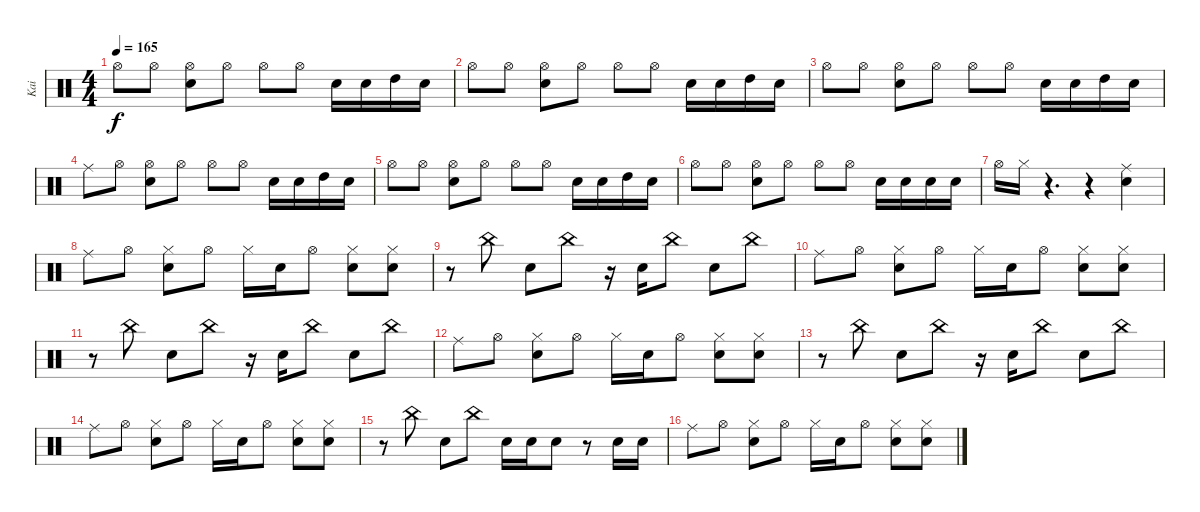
\track ("Kai" "Kai") {instrument percussion}
\staff {score}
\articulation defaults
\ts (4 4)
\tempo 165
\clef neutral
\ks c "Hi-Hat (open)".8{dy f} "Hi-Hat (open)".8
("Hi-Hat (open)" "Snare (hit) 2").8 "Hi-Hat (open)".8 "Hi-Hat (open)".8 "Hi-Hat (open)".8 "Snare (hit) 2".16 "Snare (hit) 2".16 "High Tom (hit)".16 "Snare (hit) 2".16 |
"Hi-Hat (open)".8 "Hi-Hat (open)".8 ("Hi-Hat (open)" "Snare (hit) 2").8 "Hi-Hat (open)".8 "Hi-Hat (open)".8 "Hi-Hat (open)".8 "Snare (hit) 2".16 "Snare (hit) 2".16 "High Tom (hit)".16 "Snare (hit) 2".16 |
"Hi-Hat (open)".8 "Hi-Hat (open)".8 ("Hi-Hat (open)" "Snare (hit) 2").8 "Hi-Hat (open)".8 "Hi-Hat (open)".8 "Hi-Hat (open)".8 "Snare (hit) 2".16 "Snare (hit) 2".16 "High Tom (hit)".16 "Snare (hit) 2".16 |
"Ride (middle)".8 "Hi-Hat (open)".8 ("Hi-Hat (open)" "Snare (hit) 2").8 "Hi-Hat (open)".8 "Hi-Hat (open)".8 "Hi-Hat (open)".8 "Snare (hit) 2".16 "Snare (hit) 2".16 "High Tom (hit)".16 "Snare (hit) 2".16 |
"Hi-Hat (open)".8 "Hi-Hat (open)".8 ("Hi-Hat (open)" "Snare (hit) 2").8 "Hi-Hat (open)".8 "Hi-Hat (open)".8 "Hi-Hat (open)".8 "Snare (hit) 2".16 "Snare (hit) 2".16 "High Tom (hit)".16 "Snare (hit) 2".16 |
"Hi-Hat (open)".8 "Hi-Hat (open)".8 ("Hi-Hat (open)" "Snare (hit) 2").8 "Hi-Hat (open)".8 "Hi-Hat (open)".8 "Hi-Hat (open)".8 "Snare (hit) 2".16 "Snare (hit) 2".16 "Snare (hit) 2".16 "Snare (hit) 2".16 |
"Hi-Hat (open)".16 "Hi-Hat (closed)".16 r.4{d} r.4 ("Ride (middle)" "Snare (hit) 2").4 |
"Ride (middle)".8 "Hi-Hat (open)".8 ("Hi-Hat (closed)" "Snare (hit) 2").8 "Hi-Hat (open)".8 "Hi-Hat (closed)".16 "Snare (hit) 2".16 "Hi-Hat (open)".8 ("Hi-Hat (closed)" "Snare (hit) 2").8 ("Hi-Hat (closed)" "Snare (hit) 2").8 |
r.8 "China (hit)".8 "Snare (hit) 2".8 "China (hit)".8 r.16 "Snare (hit) 2".16 "China (hit)".8 "Snare (hit) 2".8 "China (hit)".8 |
"Ride (middle)".8 "Hi-Hat (open)".8 ("Hi-Hat (closed)" "Snare (hit) 2").8 "Hi-Hat (open)".8 "Hi-Hat (closed)".16 "Snare (hit) 2".16 "Hi-Hat (open)".8 ("Hi-Hat (closed)" "Snare (hit) 2").8 ("Hi-Hat (closed)" "Snare (hit) 2").8 |
r.8 "China (hit)".8 "Snare (hit) 2".8 "China (hit)".8 r.16 "Snare (hit) 2".16 "China (hit)".8 "Snare (hit) 2".8 "China (hit)".8 |
"Ride (middle)".8 "Hi-Hat (open)".8 ("Hi-Hat (closed)" "Snare (hit) 2").8 "Hi-Hat (open)".8 "Hi-Hat (closed)".16 "Snare (hit) 2".16 "Hi-Hat (open)".8 ("Hi-Hat (closed)" "Snare (hit) 2").8 ("Hi-Hat (closed)" "Snare (hit) 2").8 |
r.8 "China (hit)".8 "Snare (hit) 2".8 "China (hit)".8 r.16 "Snare (hit) 2".16 "China (hit)".8 "Snare (hit) 2".8 "China (hit)".8 |
"Ride (middle)".8 "Hi-Hat (open)".8 ("Hi-Hat (closed)" "Snare (hit) 2").8 "Hi-Hat (open)".8 "Hi-Hat (closed)".16 "Snare (hit) 2".16 "Hi-Hat (open)".8 ("Hi-Hat (closed)" "Snare (hit) 2").8 ("Hi-Hat (closed)" "Snare (hit) 2").8 |
r.8 "China (hit)".8 "Snare (hit) 2".8 "China (hit)".8 "Snare (hit) 2".16 "Snare (hit) 2".16 "Snare (hit) 2".8 r.8 "Snare (hit) 2".16 "Snare (hit) 2".16 |
"Ride (middle)".8 "Hi-Hat (open)".8 ("Hi-Hat (closed)" "Snare (hit) 2").8 "Hi-Hat (open)".8 "Hi-Hat (closed)".16 "Snare (hit) 2".16 "Hi-Hat (open)".8 ("Hi-Hat (closed)" "Snare (hit) 2").8 ("Hi-Hat (closed)" "Snare (hit) 2").8
